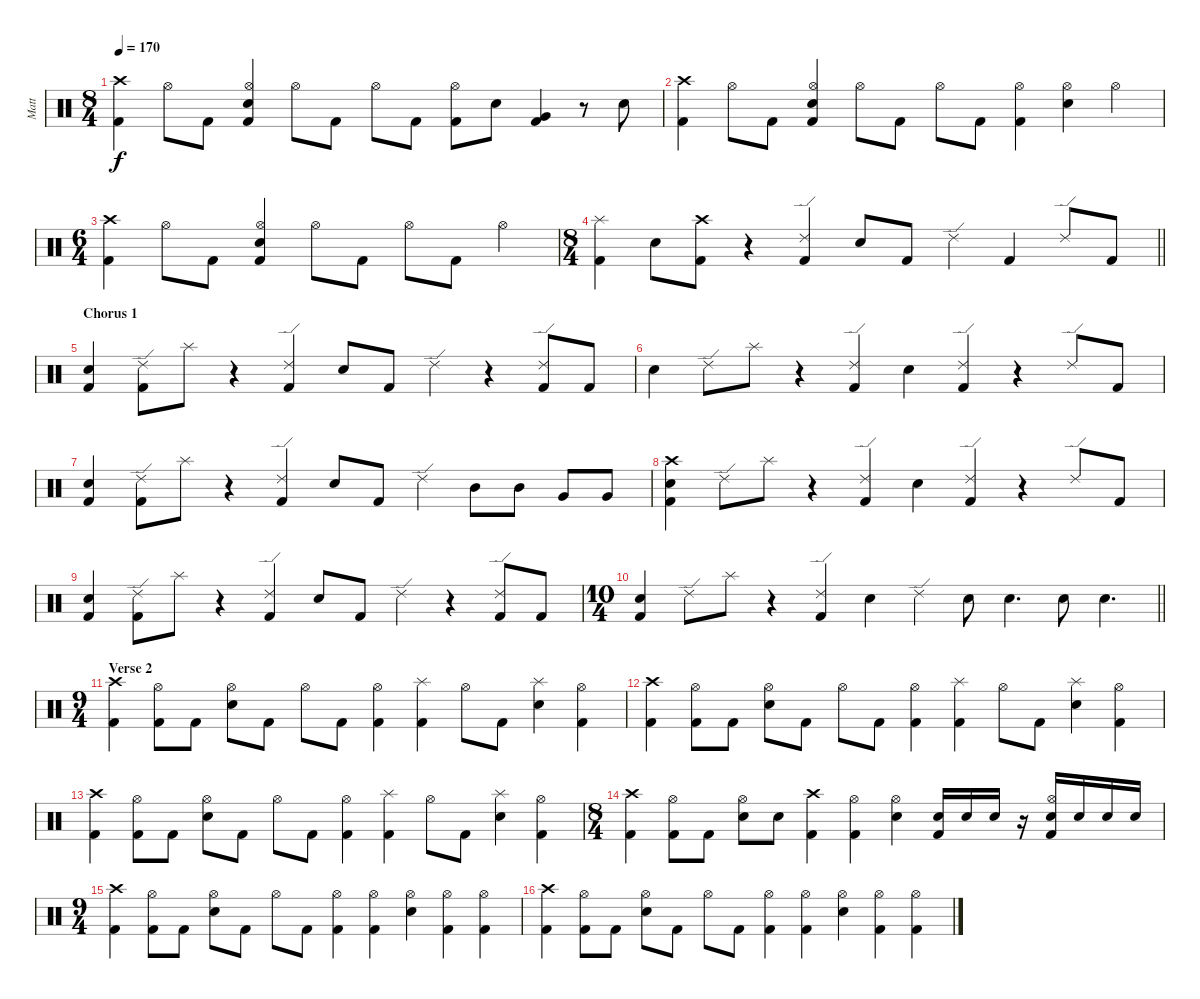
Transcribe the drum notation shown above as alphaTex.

\track ("Matt" "Matt") {instrument percussion}
\staff
\articulation defaults
\ts (8 4)
\tempo 170
\clef neutral
\ks c
("Crash high (hit)" "Kick (hit) 2").4{dy f} "Hi-Hat (open)".8 "Kick (hit) 2".8 ("Snare (hit) 2" "Hi-Hat (open)" "Kick (hit) 2").4 "Hi-Hat (open)".8 "Kick (hit) 2".8 "Hi-Hat (open)".8 "Kick (hit) 2".8 ("Hi-Hat (open)" "Kick (hit) 2").8 "Snare (hit) 2".8 ("Very Low Tom (hit)" "Kick (hit) 2").4 r.8 "Snare (hit) 2".8 |
("Crash high (hit)" "Kick (hit) 2").4 "Hi-Hat (open)".8 "Kick (hit) 2".8 ("Snare (hit) 2" "Hi-Hat (open)" "Kick (hit) 2").4 "Hi-Hat (open)".8 "Kick (hit) 2".8 "Hi-Hat (open)".8 "Kick (hit) 2".8 ("Hi-Hat (open)" "Kick (hit) 2").4 ("Snare (hit) 2" "Hi-Hat (open)").4 "Hi-Hat (open)".4 |
\ts (6 4)
("Crash high (hit)" "Kick (hit) 2").4 "Hi-Hat (open)".8 "Kick (hit) 2".8 ("Snare (hit) 2" "Hi-Hat (open)" "Kick (hit) 2").4 "Hi-Hat (open)".8 "Kick (hit) 2".8 "Hi-Hat (open)".8 "Kick (hit) 2".8 "Hi-Hat (open)".4 |
\ts (8 4)
\barLineRight lightlight
("Splash (hit)" "Kick (hit) 2").4 "Snare (hit) 2".8 ("Crash high (hit)" "Kick (hit) 2").8 r.4 ("Ride (edge) 2" "Kick (hit) 2").4 "Snare (hit) 2".8 "Kick (hit) 2".8 "Ride (edge) 2".4 "Kick (hit) 2".4 "Ride (edge) 2".8 "Kick (hit) 2".8 |
\section ("" "Chorus 1")
("Snare (hit) 2" "Kick (hit) 2").4 ("Ride (edge) 2" "Kick (hit) 2").8 "Splash (hit)".8 r.4 ("Ride (edge) 2" "Kick (hit) 2").4 "Snare (hit) 2".8 "Kick (hit) 2".8 "Ride (edge) 2".4 r.4 ("Ride (edge) 2" "Kick (hit) 2").8 "Kick (hit) 2".8 |
"Snare (hit) 2".4 "Ride (edge) 2".8 "Splash (hit)".8 r.4 ("Ride (edge) 2" "Kick (hit) 2").4 "Snare (hit) 2".4 ("Ride (edge) 2" "Kick (hit) 2").4 r.4 "Ride (edge) 2".8 "Kick (hit) 2".8 |
("Snare (hit) 2" "Kick (hit) 2").4 ("Ride (edge) 2" "Kick (hit) 2").8 "Splash (hit)".8 r.4 ("Ride (edge) 2" "Kick (hit) 2").4 "Snare (hit) 2".8 "Kick (hit) 2".8 "Ride (edge) 2".4 "Mid Tom (hit)".8 "Mid Tom (hit)".8 "Very Low Tom (hit)".8 "Very Low Tom (hit)".8 |
("Crash high (hit)" "Snare (hit) 2" "Kick (hit) 2").4 "Ride (edge) 2".8 "Splash (hit)".8 r.4 ("Ride (edge) 2" "Kick (hit) 2").4 "Snare (hit) 2".4 ("Ride (edge) 2" "Kick (hit) 2").4 r.4 "Ride (edge) 2".8 "Kick (hit) 2".8 |
("Snare (hit) 2" "Kick (hit) 2").4 ("Ride (edge) 2" "Kick (hit) 2").8 "Splash (hit)".8 r.4 ("Ride (edge) 2" "Kick (hit) 2").4 "Snare (hit) 2".8 "Kick (hit) 2".8 "Ride (edge) 2".4 r.4 ("Ride (edge) 2" "Kick (hit) 2").8 "Kick (hit) 2".8 |
\ts (10 4)
\barLineRight lightlight
("Snare (hit) 2" "Kick (hit) 2").4 "Ride (edge) 2".8 "Splash (hit)".8 r.4 ("Ride (edge) 2" "Kick (hit) 2").4 "Snare (hit) 2".4 "Ride (edge) 2".4 "Snare (hit) 2".8 "Snare (hit) 2".4{d} "Snare (hit) 2".8 "Snare (hit) 2".4{d} |
\ts (9 4)
\section ("" "Verse 2")
("Crash high (hit)" "Kick (hit) 2").4 ("Hi-Hat (open)" "Kick (hit) 2").8 "Kick (hit) 2".8 ("Snare (hit) 2" "Hi-Hat (open)").8 "Kick (hit) 2".8 "Hi-Hat (open)".8 "Kick (hit) 2".8 ("Hi-Hat (open)" "Kick (hit) 2").4 ("Splash (hit)" "Kick (hit) 2").4 "Hi-Hat (open)".8 "Kick (hit) 2".8 ("Splash (hit)" "Snare (hit) 2").4 ("Hi-Hat (open)" "Kick (hit) 2").4 |
("Crash high (hit)" "Kick (hit) 2").4 ("Hi-Hat (open)" "Kick (hit) 2").8 "Kick (hit) 2".8 ("Snare (hit) 2" "Hi-Hat (open)").8 "Kick (hit) 2".8 "Hi-Hat (open)".8 "Kick (hit) 2".8 ("Hi-Hat (open)" "Kick (hit) 2").4 ("Splash (hit)" "Kick (hit) 2").4 "Hi-Hat (open)".8 "Kick (hit) 2".8 ("Splash (hit)" "Snare (hit) 2").4 ("Hi-Hat (open)" "Kick (hit) 2").4 |
("Crash high (hit)" "Kick (hit) 2").4 ("Hi-Hat (open)" "Kick (hit) 2").8 "Kick (hit) 2".8 ("Snare (hit) 2" "Hi-Hat (open)").8 "Kick (hit) 2".8 "Hi-Hat (open)".8 "Kick (hit) 2".8 ("Hi-Hat (open)" "Kick (hit) 2").4 ("Splash (hit)" "Kick (hit) 2").4 "Hi-Hat (open)".8 "Kick (hit) 2".8 ("Splash (hit)" "Snare (hit) 2").4 ("Hi-Hat (open)" "Kick (hit) 2").4 |
\ts (8 4)
("Crash high (hit)" "Kick (hit) 2").4 ("Hi-Hat (open)" "Kick (hit) 2").8 "Kick (hit) 2".8 ("Snare (hit) 2" "Hi-Hat (open)").8 "Snare (hit) 2".8 ("Crash high (hit)" "Kick (hit) 2").4 ("Hi-Hat (open)" "Kick (hit) 2").4 ("Snare (hit) 2" "Hi-Hat (open)").4 ("Snare (hit) 2" "Kick (hit) 2").16 "Snare (hit) 2".16 "Snare (hit) 2".16 r.16 ("Snare (hit) 2" "Hi-Hat (open)" "Kick (hit) 2").16 "Snare (hit) 2".16 "Snare (hit) 2".16 "Snare (hit) 2".16 |
\ts (9 4)
("Crash high (hit)" "Kick (hit) 2").4 ("Hi-Hat (open)" "Kick (hit) 2").8 "Kick (hit) 2".8 ("Snare (hit) 2" "Hi-Hat (open)").8 "Kick (hit) 2".8 "Hi-Hat (open)".8 "Kick (hit) 2".8 ("Hi-Hat (open)" "Kick (hit) 2").4 ("Hi-Hat (open)" "Kick (hit) 2").4 ("Snare (hit) 2" "Hi-Hat (open)").4 ("Hi-Hat (open)" "Kick (hit) 2").4 ("Hi-Hat (open)" "Kick (hit) 2").4 |
("Crash high (hit)" "Kick (hit) 2").4 ("Hi-Hat (open)" "Kick (hit) 2").8 "Kick (hit) 2".8 ("Snare (hit) 2" "Hi-Hat (open)").8 "Kick (hit) 2".8 "Hi-Hat (open)".8 "Kick (hit) 2".8 ("Hi-Hat (open)" "Kick (hit) 2").4 ("Hi-Hat (open)" "Kick (hit) 2").4 ("Snare (hit) 2" "Hi-Hat (open)").4 ("Hi-Hat (open)" "Kick (hit) 2").4 ("Hi-Hat (open)" "Kick (hit) 2").4
